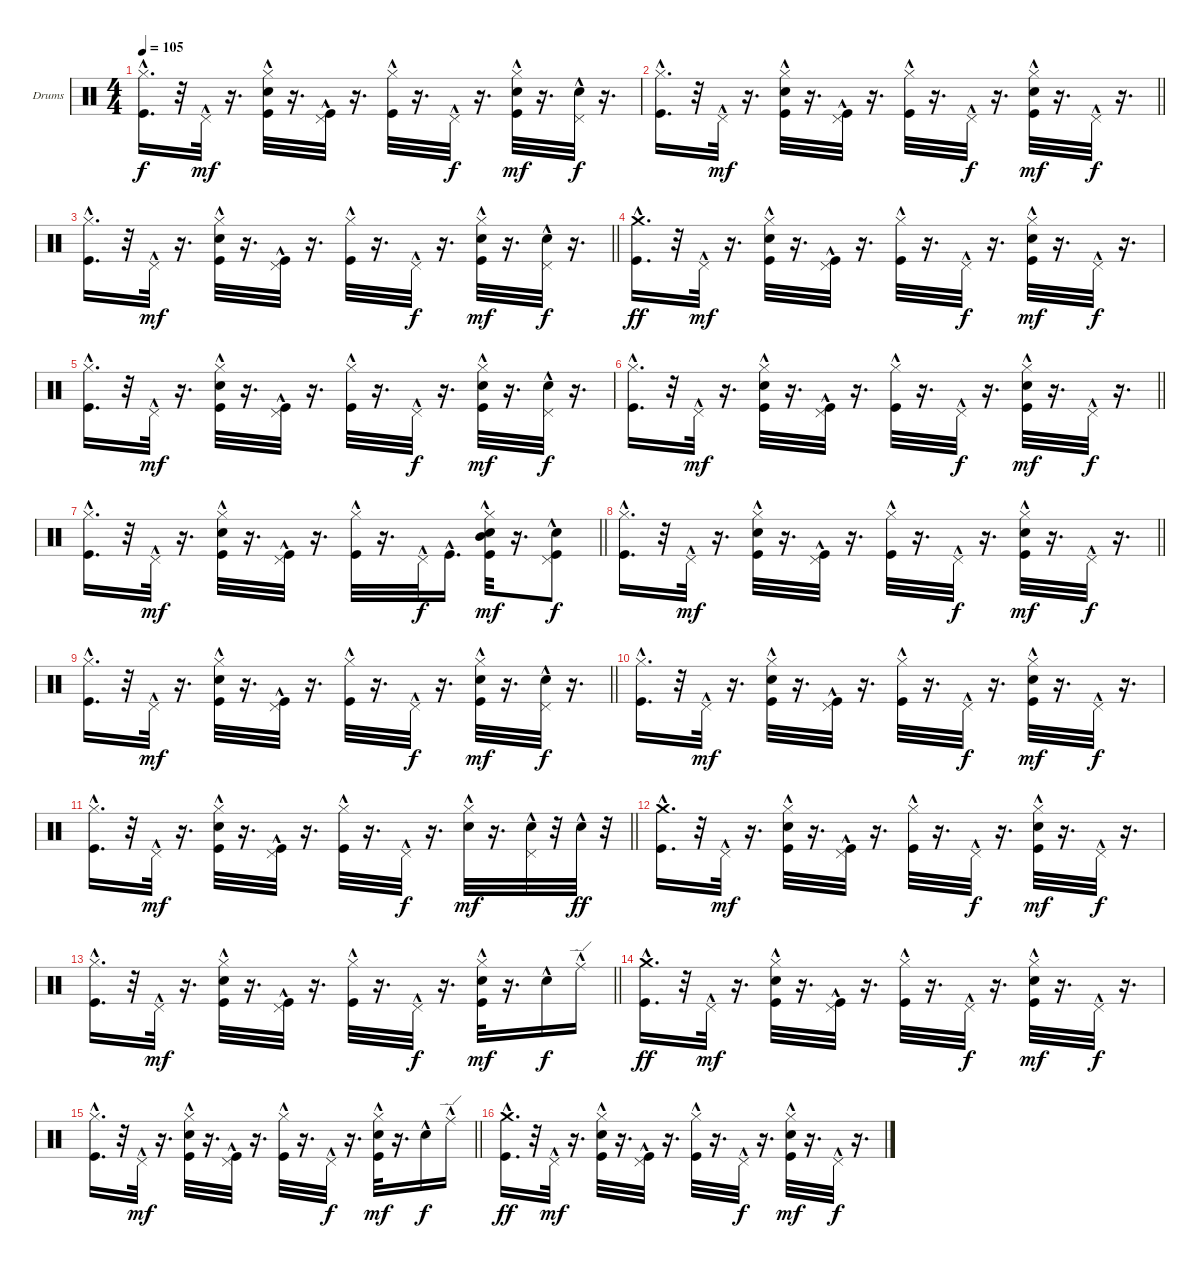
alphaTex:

\bracketExtendMode groupsimilarinstruments
\firstSystemTrackNameOrientation horizontal
\otherSystemsTrackNameOrientation horizontal
\track ("Барабаны Г.Гурьянов" "Drums") {instrument percussion}
\staff {score}
\articulation defaults
\ts (4 4)
\tempo 105
\clef neutral
\ks c
("Hi-Hat (closed)"{hac} "Kick (hit)"{hac}).16{d dy f} r.32 "Pedal Hi-Hat (hit)"{hac}.32{dy mf} r.16{d} ("Hi-Hat (closed)"{hac} "Snare (hit) 2"{hac} "Kick (hit)"{hac}).32 r.16{d} ("Pedal Hi-Hat (hit)"{hac} "Kick (hit)"{hac}).32 r.16{d} ("Hi-Hat (closed)"{hac} "Kick (hit)"{hac}).32 r.16{d} "Pedal Hi-Hat (hit)"{hac}.32{dy f} r.16{d} ("Hi-Hat (closed)"{hac} "Snare (hit) 2"{hac} "Kick (hit)"{hac}).32{dy mf} r.16{d} ("Pedal Hi-Hat (hit)"{hac} "Snare (hit) 2"{hac}).32{dy f} r.16{d} |
\barLineRight lightlight
("Hi-Hat (closed)"{hac} "Kick (hit)"{hac}).16{d} r.32 "Pedal Hi-Hat (hit)"{hac}.32{dy mf} r.16{d} ("Hi-Hat (closed)"{hac} "Snare (hit) 2"{hac} "Kick (hit)"{hac}).32 r.16{d} ("Pedal Hi-Hat (hit)"{hac} "Kick (hit)"{hac}).32 r.16{d} ("Hi-Hat (closed)"{hac} "Kick (hit)"{hac}).32 r.16{d} "Pedal Hi-Hat (hit)"{hac}.32{dy f} r.16{d} ("Hi-Hat (closed)"{hac} "Snare (hit) 2"{hac} "Kick (hit)"{hac}).32{dy mf} r.16{d} "Pedal Hi-Hat (hit)"{hac}.32{dy f} r.16{d} |
\barLineRight lightlight
("Hi-Hat (closed)"{hac} "Kick (hit)"{hac}).16{d} r.32 "Pedal Hi-Hat (hit)"{hac}.32{dy mf} r.16{d} ("Hi-Hat (closed)"{hac} "Snare (hit) 2"{hac} "Kick (hit)"{hac}).32 r.16{d} ("Pedal Hi-Hat (hit)"{hac} "Kick (hit)"{hac}).32 r.16{d} ("Hi-Hat (closed)"{hac} "Kick (hit)"{hac}).32 r.16{d} "Pedal Hi-Hat (hit)"{hac}.32{dy f} r.16{d} ("Hi-Hat (closed)"{hac} "Snare (hit) 2"{hac} "Kick (hit)"{hac}).32{dy mf} r.16{d} ("Pedal Hi-Hat (hit)"{hac} "Snare (hit) 2"{hac}).32{dy f} r.16{d} |
("Crash medium (hit)"{hac} "Kick (hit)"{hac}).16{d dy ff} r.32 "Pedal Hi-Hat (hit)"{hac}.32{dy mf} r.16{d} ("Hi-Hat (closed)"{hac} "Snare (hit) 2"{hac} "Kick (hit)"{hac}).32 r.16{d} ("Pedal Hi-Hat (hit)"{hac} "Kick (hit)"{hac}).32 r.16{d} ("Hi-Hat (closed)"{hac} "Kick (hit)"{hac}).32 r.16{d} "Pedal Hi-Hat (hit)"{hac}.32{dy f} r.16{d} ("Hi-Hat (closed)"{hac} "Snare (hit) 2"{hac} "Kick (hit)"{hac}).32{dy mf} r.16{d} "Pedal Hi-Hat (hit)"{hac}.32{dy f} r.16{d} |
("Hi-Hat (closed)"{hac} "Kick (hit)"{hac}).16{d} r.32 "Pedal Hi-Hat (hit)"{hac}.32{dy mf} r.16{d} ("Hi-Hat (closed)"{hac} "Snare (hit) 2"{hac} "Kick (hit)"{hac}).32 r.16{d} ("Pedal Hi-Hat (hit)"{hac} "Kick (hit)"{hac}).32 r.16{d} ("Hi-Hat (closed)"{hac} "Kick (hit)"{hac}).32 r.16{d} "Pedal Hi-Hat (hit)"{hac}.32{dy f} r.16{d} ("Hi-Hat (closed)"{hac} "Snare (hit) 2"{hac} "Kick (hit)"{hac}).32{dy mf} r.16{d} ("Pedal Hi-Hat (hit)"{hac} "Snare (hit) 2"{hac}).32{dy f} r.16{d} |
\barLineRight lightlight
("Hi-Hat (closed)"{hac} "Kick (hit)"{hac}).16{d} r.32 "Pedal Hi-Hat (hit)"{hac}.32{dy mf} r.16{d} ("Hi-Hat (closed)"{hac} "Snare (hit) 2"{hac} "Kick (hit)"{hac}).32 r.16{d} ("Pedal Hi-Hat (hit)"{hac} "Kick (hit)"{hac}).32 r.16{d} ("Hi-Hat (closed)"{hac} "Kick (hit)"{hac}).32 r.16{d} "Pedal Hi-Hat (hit)"{hac}.32{dy f} r.16{d} ("Hi-Hat (closed)"{hac} "Snare (hit) 2"{hac} "Kick (hit)"{hac}).32{dy mf} r.16{d} "Pedal Hi-Hat (hit)"{hac}.32{dy f} r.16{d} |
\barLineRight lightlight
("Hi-Hat (closed)"{hac} "Kick (hit)"{hac}).16{d} r.32 "Pedal Hi-Hat (hit)"{hac}.32{dy mf} r.16{d} ("Hi-Hat (closed)"{hac} "Snare (hit) 2"{hac} "Kick (hit)"{hac}).32 r.16{d} ("Pedal Hi-Hat (hit)"{hac} "Kick (hit)"{hac}).32 r.16{d} ("Hi-Hat (closed)"{hac} "Kick (hit)"{hac}).32 r.16{d} "Pedal Hi-Hat (hit)"{hac}.32{dy f} "Kick (hit)"{hac}.16{d} ("Hi-Hat (closed)"{hac} "Snare (hit) 2"{hac} "Mid Tom (hit)"{hac} "Kick (hit)"{hac}).32{dy mf} r.16{d} ("Pedal Hi-Hat (hit)"{hac} "Snare (hit) 2"{hac} "Kick (hit)"{hac}).8{dy f} |
\barLineRight lightlight
("Hi-Hat (closed)"{hac} "Kick (hit)"{hac}).16{d} r.32 "Pedal Hi-Hat (hit)"{hac}.32{dy mf} r.16{d} ("Hi-Hat (closed)"{hac} "Snare (hit) 2"{hac} "Kick (hit)"{hac}).32 r.16{d} ("Pedal Hi-Hat (hit)"{hac} "Kick (hit)"{hac}).32 r.16{d} ("Hi-Hat (closed)"{hac} "Kick (hit)"{hac}).32 r.16{d} "Pedal Hi-Hat (hit)"{hac}.32{dy f} r.16{d} ("Hi-Hat (closed)"{hac} "Snare (hit) 2"{hac} "Kick (hit)"{hac}).32{dy mf} r.16{d} "Pedal Hi-Hat (hit)"{hac}.32{dy f} r.16{d} |
\barLineRight lightlight
("Hi-Hat (closed)"{hac} "Kick (hit)"{hac}).16{d} r.32 "Pedal Hi-Hat (hit)"{hac}.32{dy mf} r.16{d} ("Hi-Hat (closed)"{hac} "Snare (hit) 2"{hac} "Kick (hit)"{hac}).32 r.16{d} ("Pedal Hi-Hat (hit)"{hac} "Kick (hit)"{hac}).32 r.16{d} ("Hi-Hat (closed)"{hac} "Kick (hit)"{hac}).32 r.16{d} "Pedal Hi-Hat (hit)"{hac}.32{dy f} r.16{d} ("Hi-Hat (closed)"{hac} "Snare (hit) 2"{hac} "Kick (hit)"{hac}).32{dy mf} r.16{d} ("Pedal Hi-Hat (hit)"{hac} "Snare (hit) 2"{hac}).32{dy f} r.16{d} |
("Hi-Hat (closed)"{hac} "Kick (hit)"{hac}).16{d} r.32 "Pedal Hi-Hat (hit)"{hac}.32{dy mf} r.16{d} ("Hi-Hat (closed)"{hac} "Snare (hit) 2"{hac} "Kick (hit)"{hac}).32 r.16{d} ("Pedal Hi-Hat (hit)"{hac} "Kick (hit)"{hac}).32 r.16{d} ("Hi-Hat (closed)"{hac} "Kick (hit)"{hac}).32 r.16{d} "Pedal Hi-Hat (hit)"{hac}.32{dy f} r.16{d} ("Hi-Hat (closed)"{hac} "Snare (hit) 2"{hac} "Kick (hit)"{hac}).32{dy mf} r.16{d} "Pedal Hi-Hat (hit)"{hac}.32{dy f} r.16{d} |
\barLineRight lightlight
("Hi-Hat (closed)"{hac} "Kick (hit)"{hac}).16{d} r.32 "Pedal Hi-Hat (hit)"{hac}.32{dy mf} r.16{d} ("Hi-Hat (closed)"{hac} "Snare (hit) 2"{hac} "Kick (hit)"{hac}).32 r.16{d} ("Pedal Hi-Hat (hit)"{hac} "Kick (hit)"{hac}).32 r.16{d} ("Hi-Hat (closed)"{hac} "Kick (hit)"{hac}).32 r.16{d} "Pedal Hi-Hat (hit)"{hac}.32{dy f} r.16{d} ("Hi-Hat (closed)"{hac} "Snare (hit) 2"{hac}).32{dy mf} r.16{d} ("Pedal Hi-Hat (hit)"{hac} "Snare (hit) 2"{hac}).32 r.32 "Snare (hit) 2"{hac}.32{dy ff} r.32 |
("Crash medium (hit)"{hac} "Kick (hit)"{hac}).16{d} r.32 "Pedal Hi-Hat (hit)"{hac}.32{dy mf} r.16{d} ("Hi-Hat (closed)"{hac} "Snare (hit) 2"{hac} "Kick (hit)"{hac}).32 r.16{d} ("Pedal Hi-Hat (hit)"{hac} "Kick (hit)"{hac}).32 r.16{d} ("Hi-Hat (closed)"{hac} "Kick (hit)"{hac}).32 r.16{d} "Pedal Hi-Hat (hit)"{hac}.32{dy f} r.16{d} ("Hi-Hat (closed)"{hac} "Snare (hit) 2"{hac} "Kick (hit)"{hac}).32{dy mf} r.16{d} "Pedal Hi-Hat (hit)"{hac}.32{dy f} r.16{d} |
\barLineRight lightlight
("Hi-Hat (closed)"{hac} "Kick (hit)"{hac}).16{d} r.32 "Pedal Hi-Hat (hit)"{hac}.32{dy mf} r.16{d} ("Hi-Hat (closed)"{hac} "Snare (hit) 2"{hac} "Kick (hit)"{hac}).32 r.16{d} ("Pedal Hi-Hat (hit)"{hac} "Kick (hit)"{hac}).32 r.16{d} ("Hi-Hat (closed)"{hac} "Kick (hit)"{hac}).32 r.16{d} "Pedal Hi-Hat (hit)"{hac}.32{dy f} r.16{d} ("Hi-Hat (closed)"{hac} "Snare (hit) 2"{hac} "Kick (hit)"{hac}).32{dy mf} r.16{d} "Snare (hit) 2"{hac}.16{dy f} "Ride (edge)"{hac}.16 |
("Crash medium (hit)"{hac} "Kick (hit)"{hac}).16{d dy ff} r.32 "Pedal Hi-Hat (hit)"{hac}.32{dy mf} r.16{d} ("Hi-Hat (closed)"{hac} "Snare (hit) 2"{hac} "Kick (hit)"{hac}).32 r.16{d} ("Pedal Hi-Hat (hit)"{hac} "Kick (hit)"{hac}).32 r.16{d} ("Hi-Hat (closed)"{hac} "Kick (hit)"{hac}).32 r.16{d} "Pedal Hi-Hat (hit)"{hac}.32{dy f} r.16{d} ("Hi-Hat (closed)"{hac} "Snare (hit) 2"{hac} "Kick (hit)"{hac}).32{dy mf} r.16{d} "Pedal Hi-Hat (hit)"{hac}.32{dy f} r.16{d} |
\barLineRight lightlight
("Hi-Hat (closed)"{hac} "Kick (hit)"{hac}).16{d} r.32 "Pedal Hi-Hat (hit)"{hac}.32{dy mf} r.16{d} ("Hi-Hat (closed)"{hac} "Snare (hit) 2"{hac} "Kick (hit)"{hac}).32 r.16{d} ("Pedal Hi-Hat (hit)"{hac} "Kick (hit)"{hac}).32 r.16{d} ("Hi-Hat (closed)"{hac} "Kick (hit)"{hac}).32 r.16{d} "Pedal Hi-Hat (hit)"{hac}.32{dy f} r.16{d} ("Hi-Hat (closed)"{hac} "Snare (hit) 2"{hac} "Kick (hit)"{hac}).32{dy mf} r.16{d} "Snare (hit) 2"{hac}.16{dy f} "Ride (edge)"{hac}.16 |
("Crash medium (hit)"{hac} "Kick (hit)"{hac}).16{d dy ff} r.32 "Pedal Hi-Hat (hit)"{hac}.32{dy mf} r.16{d} ("Hi-Hat (closed)"{hac} "Snare (hit) 2"{hac} "Kick (hit)"{hac}).32 r.16{d} ("Pedal Hi-Hat (hit)"{hac} "Kick (hit)"{hac}).32 r.16{d} ("Hi-Hat (closed)"{hac} "Kick (hit)"{hac}).32 r.16{d} "Pedal Hi-Hat (hit)"{hac}.32{dy f} r.16{d} ("Hi-Hat (closed)"{hac} "Snare (hit) 2"{hac} "Kick (hit)"{hac}).32{dy mf} r.16{d} "Pedal Hi-Hat (hit)"{hac}.32{dy f} r.16{d}
